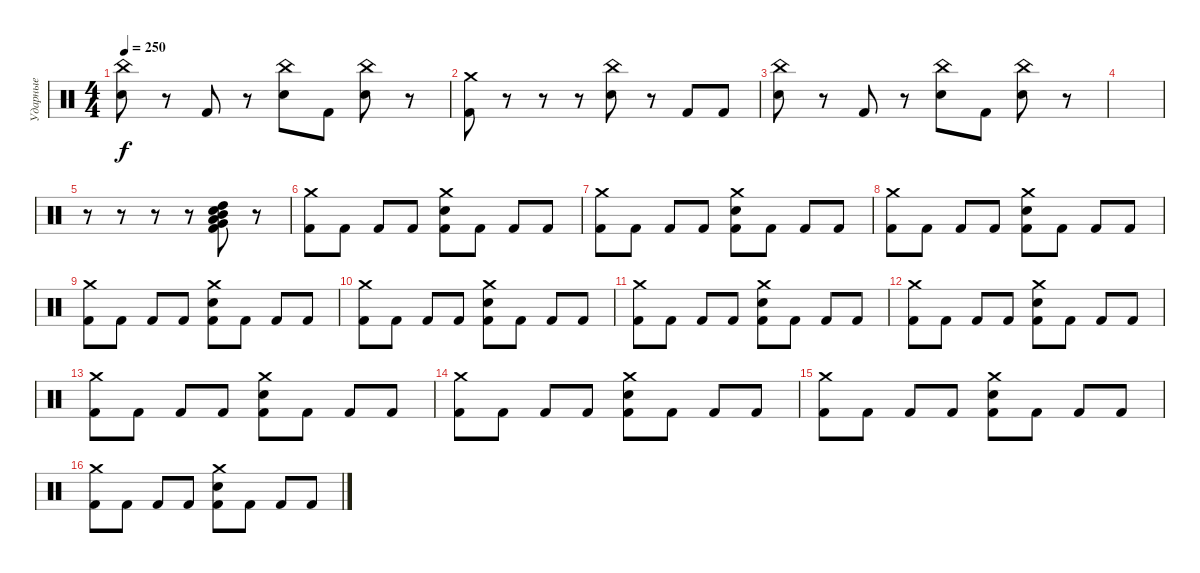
\track ("Ударные" "Ударные") {instrument percussion}
\staff {score}
\articulation defaults
\ts (4 4)
\tempo 250
\clef neutral
\ks c
("Snare (hit) 2" "China (hit)").8{dy f} r.8 "Kick (hit) 2".8 r.8 ("Snare (hit) 2" "China (hit)").8 "Kick (hit) 2".8 ("Snare (hit) 2" "China (hit)").8 r.8 |
("Crash medium (hit)" "Kick (hit) 2").8 r.8 r.8 r.8 ("Snare (hit) 2" "China (hit)").8 r.8 "Kick (hit) 2".8 "Kick (hit) 2".8 |
("Snare (hit) 2" "China (hit)").8 r.8 "Kick (hit) 2".8 r.8 ("Snare (hit) 2" "China (hit)").8 "Kick (hit) 2".8 ("Snare (hit) 2" "China (hit)").8 r.8 |
|
r.8 r.8 r.8 r.8 ("Mid Tom (hit)" "Snare (hit) 2" "Kick (hit) 2" "Very Low Tom (hit)" "Low Tom (hit)" "High Tom (hit)").8 r.8 |
("Crash medium (hit)" "Kick (hit) 2").8 "Kick (hit) 2".8 "Kick (hit) 2".8 "Kick (hit) 2".8 ("Crash medium (hit)" "Snare (hit) 2" "Kick (hit) 2").8 "Kick (hit) 2".8 "Kick (hit) 2".8 "Kick (hit) 2".8 |
("Crash medium (hit)" "Kick (hit) 2").8 "Kick (hit) 2".8 "Kick (hit) 2".8 "Kick (hit) 2".8 ("Crash medium (hit)" "Snare (hit) 2" "Kick (hit) 2").8 "Kick (hit) 2".8 "Kick (hit) 2".8 "Kick (hit) 2".8 |
("Crash medium (hit)" "Kick (hit) 2").8 "Kick (hit) 2".8 "Kick (hit) 2".8 "Kick (hit) 2".8 ("Crash medium (hit)" "Snare (hit) 2" "Kick (hit) 2").8 "Kick (hit) 2".8 "Kick (hit) 2".8 "Kick (hit) 2".8 |
("Crash medium (hit)" "Kick (hit) 2").8 "Kick (hit) 2".8 "Kick (hit) 2".8 "Kick (hit) 2".8 ("Crash medium (hit)" "Snare (hit) 2" "Kick (hit) 2").8 "Kick (hit) 2".8 "Kick (hit) 2".8 "Kick (hit) 2".8 |
("Crash medium (hit)" "Kick (hit) 2").8 "Kick (hit) 2".8 "Kick (hit) 2".8 "Kick (hit) 2".8 ("Crash medium (hit)" "Snare (hit) 2" "Kick (hit) 2").8 "Kick (hit) 2".8 "Kick (hit) 2".8 "Kick (hit) 2".8 |
("Crash medium (hit)" "Kick (hit) 2").8 "Kick (hit) 2".8 "Kick (hit) 2".8 "Kick (hit) 2".8 ("Crash medium (hit)" "Snare (hit) 2" "Kick (hit) 2").8 "Kick (hit) 2".8 "Kick (hit) 2".8 "Kick (hit) 2".8 |
("Crash medium (hit)" "Kick (hit) 2").8 "Kick (hit) 2".8 "Kick (hit) 2".8 "Kick (hit) 2".8 ("Crash medium (hit)" "Snare (hit) 2" "Kick (hit) 2").8 "Kick (hit) 2".8 "Kick (hit) 2".8 "Kick (hit) 2".8 |
("Crash medium (hit)" "Kick (hit) 2").8 "Kick (hit) 2".8 "Kick (hit) 2".8 "Kick (hit) 2".8 ("Crash medium (hit)" "Snare (hit) 2" "Kick (hit) 2").8 "Kick (hit) 2".8 "Kick (hit) 2".8 "Kick (hit) 2".8 |
("Crash medium (hit)" "Kick (hit) 2").8 "Kick (hit) 2".8 "Kick (hit) 2".8 "Kick (hit) 2".8 ("Crash medium (hit)" "Snare (hit) 2" "Kick (hit) 2").8 "Kick (hit) 2".8 "Kick (hit) 2".8 "Kick (hit) 2".8 |
("Crash medium (hit)" "Kick (hit) 2").8 "Kick (hit) 2".8 "Kick (hit) 2".8 "Kick (hit) 2".8 ("Crash medium (hit)" "Snare (hit) 2" "Kick (hit) 2").8 "Kick (hit) 2".8 "Kick (hit) 2".8 "Kick (hit) 2".8 |
("Crash medium (hit)" "Kick (hit) 2").8 "Kick (hit) 2".8 "Kick (hit) 2".8 "Kick (hit) 2".8 ("Crash medium (hit)" "Snare (hit) 2" "Kick (hit) 2").8 "Kick (hit) 2".8 "Kick (hit) 2".8 "Kick (hit) 2".8
